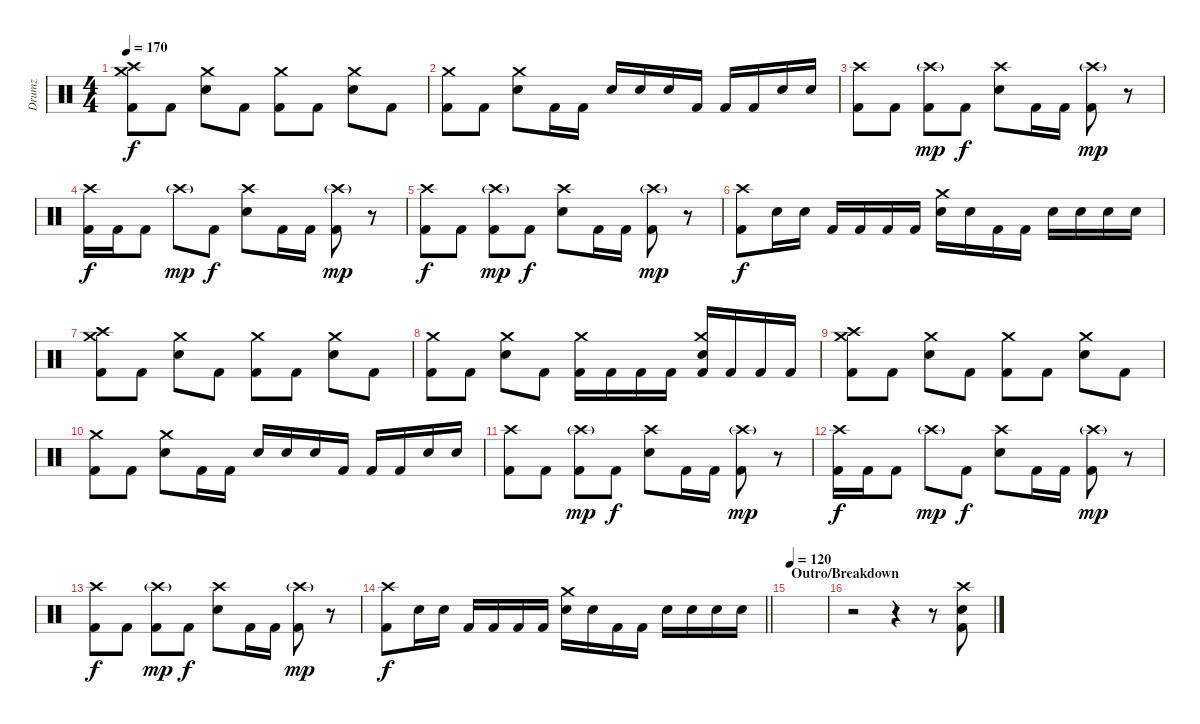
\track ("Drumz" "Drumz") {instrument percussion}
\staff {score}
\articulation defaults
\ts (4 4)
\tempo 170
\clef neutral
\ks c
("Crash high (hit)" "Kick (hit) 2" "Crash medium (hit)").8{dy f} "Kick (hit) 2".8 ("Electric Snare (hit)" "Crash medium (hit)").8 "Kick (hit) 2".8 ("Kick (hit) 2" "Crash medium (hit)").8 "Kick (hit) 2".8 ("Electric Snare (hit)" "Crash medium (hit)").8 "Kick (hit) 2".8 |
("Kick (hit) 2" "Crash medium (hit)").8 "Kick (hit) 2".8 ("Electric Snare (hit)" "Crash medium (hit)").8 "Kick (hit) 2".16 "Kick (hit) 2".16 "Electric Snare (hit)".16 "Electric Snare (hit)".16 "Electric Snare (hit)".16 "Kick (hit) 2".16 "Kick (hit) 2".16 "Kick (hit) 2".16 "Electric Snare (hit)".16 "Electric Snare (hit)".16 |
("Kick (hit) 2" "Crash high (hit)").8 "Kick (hit) 2".8 ("Kick (hit) 2" "Crash high (hit)"{g}).8{dy mp} "Kick (hit) 2".8{dy f} ("Electric Snare (hit)" "Crash high (hit)").8 "Kick (hit) 2".16 "Kick (hit) 2".16 ("Kick (hit) 2" "Crash high (hit)"{g}).8{dy mp} r.8 |
("Crash high (hit)" "Kick (hit) 2").16{dy f} "Kick (hit) 2".16 "Kick (hit) 2".8 "Crash high (hit)"{g}.8{dy mp} "Kick (hit) 2".8{dy f} ("Crash high (hit)" "Electric Snare (hit)").8 "Kick (hit) 2".16 "Kick (hit) 2".16 ("Kick (hit) 2" "Crash high (hit)"{g}).8{dy mp} r.8 |
("Kick (hit) 2" "Crash high (hit)").8{dy f} "Kick (hit) 2".8 ("Kick (hit) 2" "Crash high (hit)"{g}).8{dy mp} "Kick (hit) 2".8{dy f} ("Electric Snare (hit)" "Crash high (hit)").8 "Kick (hit) 2".16 "Kick (hit) 2".16 ("Kick (hit) 2" "Crash high (hit)"{g}).8{dy mp} r.8 |
("Crash high (hit)" "Kick (hit) 2").8{dy f} "Electric Snare (hit)".16 "Electric Snare (hit)".16 "Kick (hit) 2".16 "Kick (hit) 2".16 "Kick (hit) 2".16 "Kick (hit) 2".16 ("Electric Snare (hit)" "Crash medium (hit)").16 "Electric Snare (hit)".16 "Kick (hit) 2".16 "Kick (hit) 2".16 "Electric Snare (hit)".16 "Electric Snare (hit)".16 "Electric Snare (hit)".16 "Electric Snare (hit)".16 |
("Crash high (hit)" "Kick (hit) 2" "Crash medium (hit)").8 "Kick (hit) 2".8 ("Electric Snare (hit)" "Crash medium (hit)").8 "Kick (hit) 2".8 ("Kick (hit) 2" "Crash medium (hit)").8 "Kick (hit) 2".8 ("Electric Snare (hit)" "Crash medium (hit)").8 "Kick (hit) 2".8 |
("Kick (hit) 2" "Crash medium (hit)").8 "Kick (hit) 2".8 ("Electric Snare (hit)" "Crash medium (hit)").8 "Kick (hit) 2".8 ("Kick (hit) 2" "Crash medium (hit)").16 "Kick (hit) 2".16 "Kick (hit) 2".16 "Kick (hit) 2".16 ("Electric Snare (hit)" "Crash medium (hit)" "Kick (hit) 2").16 "Kick (hit) 2".16 "Kick (hit) 2".16 "Kick (hit) 2".16 |
("Crash high (hit)" "Kick (hit) 2" "Crash medium (hit)").8 "Kick (hit) 2".8 ("Electric Snare (hit)" "Crash medium (hit)").8 "Kick (hit) 2".8 ("Kick (hit) 2" "Crash medium (hit)").8 "Kick (hit) 2".8 ("Electric Snare (hit)" "Crash medium (hit)").8 "Kick (hit) 2".8 |
("Kick (hit) 2" "Crash medium (hit)").8 "Kick (hit) 2".8 ("Electric Snare (hit)" "Crash medium (hit)").8 "Kick (hit) 2".16 "Kick (hit) 2".16 "Electric Snare (hit)".16 "Electric Snare (hit)".16 "Electric Snare (hit)".16 "Kick (hit) 2".16 "Kick (hit) 2".16 "Kick (hit) 2".16 "Electric Snare (hit)".16 "Electric Snare (hit)".16 |
("Kick (hit) 2" "Crash high (hit)").8 "Kick (hit) 2".8 ("Kick (hit) 2" "Crash high (hit)"{g}).8{dy mp} "Kick (hit) 2".8{dy f} ("Electric Snare (hit)" "Crash high (hit)").8 "Kick (hit) 2".16 "Kick (hit) 2".16 ("Kick (hit) 2" "Crash high (hit)"{g}).8{dy mp} r.8 |
("Crash high (hit)" "Kick (hit) 2").16{dy f} "Kick (hit) 2".16 "Kick (hit) 2".8 "Crash high (hit)"{g}.8{dy mp} "Kick (hit) 2".8{dy f} ("Crash high (hit)" "Electric Snare (hit)").8 "Kick (hit) 2".16 "Kick (hit) 2".16 ("Kick (hit) 2" "Crash high (hit)"{g}).8{dy mp} r.8 |
("Kick (hit) 2" "Crash high (hit)").8{dy f} "Kick (hit) 2".8 ("Kick (hit) 2" "Crash high (hit)"{g}).8{dy mp} "Kick (hit) 2".8{dy f} ("Electric Snare (hit)" "Crash high (hit)").8 "Kick (hit) 2".16 "Kick (hit) 2".16 ("Kick (hit) 2" "Crash high (hit)"{g}).8{dy mp} r.8 |
\barLineRight lightlight
("Crash high (hit)" "Kick (hit) 2").8{dy f} "Electric Snare (hit)".16 "Electric Snare (hit)".16 "Kick (hit) 2".16 "Kick (hit) 2".16 "Kick (hit) 2".16 "Kick (hit) 2".16 ("Electric Snare (hit)" "Crash medium (hit)").16 "Electric Snare (hit)".16 "Kick (hit) 2".16 "Kick (hit) 2".16 "Electric Snare (hit)".16 "Electric Snare (hit)".16 "Electric Snare (hit)".16 "Electric Snare (hit)".16 |
\section ("" "Outro/Breakdown")
\tempo 120
|
r.2 r.4 r.8 ("Crash high (hit)" "Electric Snare (hit)" "Kick (hit) 2").8
